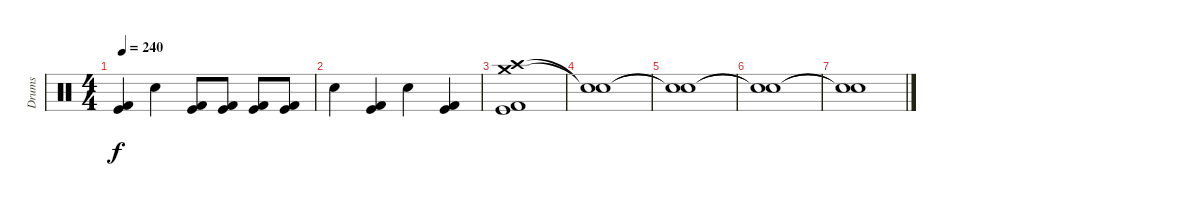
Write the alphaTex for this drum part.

\track ("Drums" "Drums") {instrument percussion}
\staff {score}
\articulation defaults
\ts (4 4)
\tempo 240
\clef neutral
\ks c
("Kick (hit)" "Kick (hit) 2").4{dy f} "Electric Snare (hit)".4 ("Kick (hit)" "Kick (hit) 2").8 ("Kick (hit)" "Kick (hit) 2").8 ("Kick (hit)" "Kick (hit) 2").8 ("Kick (hit)" "Kick (hit) 2").8 |
"Electric Snare (hit)".4 ("Kick (hit)" "Kick (hit) 2").4 "Electric Snare (hit)".4 ("Kick (hit)" "Kick (hit) 2").4 |
("Crash high (hit)" "Crash medium (hit)" "Kick (hit)" "Kick (hit) 2").1 |
("Snare (hit)"{t} "Snare (hit)"{t}).1 |
("Snare (hit)"{t} "Snare (hit)"{t}).1 |
("Snare (hit)"{t} "Snare (hit)"{t}).1 |
("Snare (hit)"{t} "Snare (hit)"{t}).1
